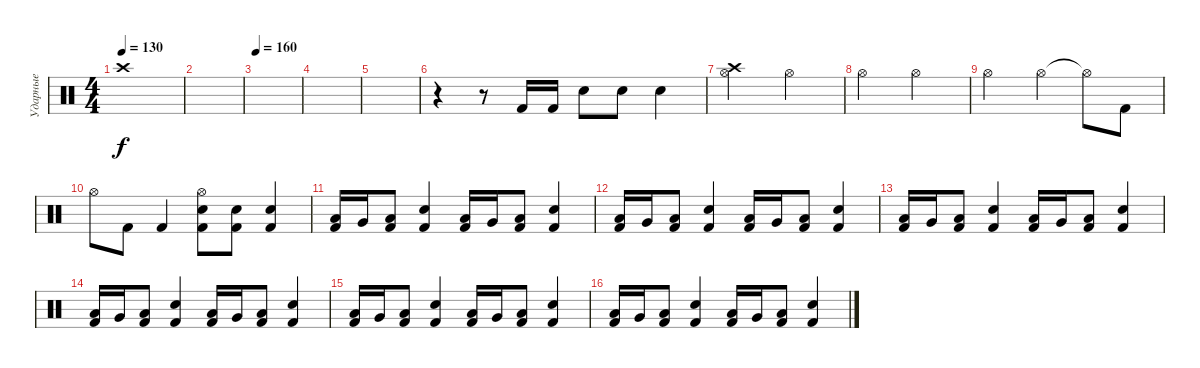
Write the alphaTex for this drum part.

\track ("Ударные" "Ударные") {instrument percussion}
\staff {score}
\articulation defaults
\ts (4 4)
\tempo 130
\clef neutral
\ks c "Crash high (hit)".1{dy f}
|
|
\tempo 160
|
|
|
r.4 r.8 "Kick (hit) 2".16 "Kick (hit) 2".16 "Snare (hit) 2".8 "Snare (hit) 2".8 "Snare (hit) 2".4 |
("Crash high (hit)" "Hi-Hat (open)").2 "Hi-Hat (open)".2 |
"Hi-Hat (open)".2 "Hi-Hat (open)".2 |
"Hi-Hat (open)".2 "Hi-Hat (open)".4 "Hi-Hat (open)"{t}.8 "Kick (hit) 2".8 |
"Hi-Hat (open)".8 "Kick (hit) 2".8 "Kick (hit) 2".4 ("Hi-Hat (open)" "Snare (hit) 2" "Kick (hit) 2").8 ("Snare (hit) 2" "Kick (hit) 2").8 ("Snare (hit) 2" "Kick (hit) 2").4 |
("Low Floor Tom (hit)" "Kick (hit) 2").16 "Very Low Tom (hit)".16 ("Low Floor Tom (hit)" "Kick (hit) 2").8 ("Snare (hit) 2" "Kick (hit) 2").4 ("Low Floor Tom (hit)" "Kick (hit) 2").16 "Very Low Tom (hit)".16 ("Low Floor Tom (hit)" "Kick (hit) 2").8 ("Snare (hit) 2" "Kick (hit) 2").4 |
("Low Floor Tom (hit)" "Kick (hit) 2").16 "Very Low Tom (hit)".16 ("Low Floor Tom (hit)" "Kick (hit) 2").8 ("Snare (hit) 2" "Kick (hit) 2").4 ("Low Floor Tom (hit)" "Kick (hit) 2").16 "Very Low Tom (hit)".16 ("Low Floor Tom (hit)" "Kick (hit) 2").8 ("Snare (hit) 2" "Kick (hit) 2").4 |
("Low Floor Tom (hit)" "Kick (hit) 2").16 "Very Low Tom (hit)".16 ("Low Floor Tom (hit)" "Kick (hit) 2").8 ("Snare (hit) 2" "Kick (hit) 2").4 ("Low Floor Tom (hit)" "Kick (hit) 2").16 "Very Low Tom (hit)".16 ("Low Floor Tom (hit)" "Kick (hit) 2").8 ("Snare (hit) 2" "Kick (hit) 2").4 |
("Low Floor Tom (hit)" "Kick (hit) 2").16 "Very Low Tom (hit)".16 ("Low Floor Tom (hit)" "Kick (hit) 2").8 ("Snare (hit) 2" "Kick (hit) 2").4 ("Low Floor Tom (hit)" "Kick (hit) 2").16 "Very Low Tom (hit)".16 ("Low Floor Tom (hit)" "Kick (hit) 2").8 ("Snare (hit) 2" "Kick (hit) 2").4 |
("Low Floor Tom (hit)" "Kick (hit) 2").16 "Very Low Tom (hit)".16 ("Low Floor Tom (hit)" "Kick (hit) 2").8 ("Snare (hit) 2" "Kick (hit) 2").4 ("Low Floor Tom (hit)" "Kick (hit) 2").16 "Very Low Tom (hit)".16 ("Low Floor Tom (hit)" "Kick (hit) 2").8 ("Snare (hit) 2" "Kick (hit) 2").4 |
("Low Floor Tom (hit)" "Kick (hit) 2").16 "Very Low Tom (hit)".16 ("Low Floor Tom (hit)" "Kick (hit) 2").8 ("Snare (hit) 2" "Kick (hit) 2").4 ("Low Floor Tom (hit)" "Kick (hit) 2").16 "Very Low Tom (hit)".16 ("Low Floor Tom (hit)" "Kick (hit) 2").8 ("Snare (hit) 2" "Kick (hit) 2").4
